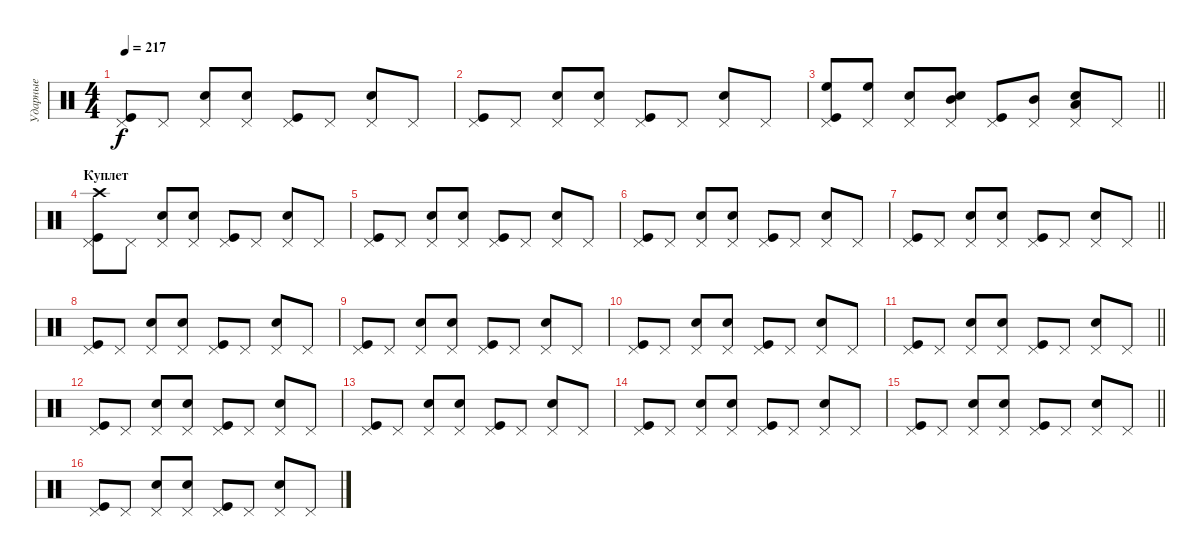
\track ("Ударные" "Ударные") {instrument percussion}
\staff {score}
\articulation defaults
\ts (4 4)
\tempo 217
\clef neutral
\ks c
("Pedal Hi-Hat (hit)" "Kick (hit)").8{dy f} "Pedal Hi-Hat (hit)".8 ("Pedal Hi-Hat (hit)" "Snare (hit) 2").8 ("Pedal Hi-Hat (hit)" "Snare (hit) 2").8 ("Pedal Hi-Hat (hit)" "Kick (hit)").8 "Pedal Hi-Hat (hit)".8 ("Pedal Hi-Hat (hit)" "Snare (hit) 2").8 "Pedal Hi-Hat (hit)".8 |
("Pedal Hi-Hat (hit)" "Kick (hit)").8 "Pedal Hi-Hat (hit)".8 ("Pedal Hi-Hat (hit)" "Snare (hit) 2").8 ("Pedal Hi-Hat (hit)" "Snare (hit) 2").8 ("Pedal Hi-Hat (hit)" "Kick (hit)").8 "Pedal Hi-Hat (hit)".8 ("Pedal Hi-Hat (hit)" "Snare (hit) 2").8 "Pedal Hi-Hat (hit)".8 |
\barLineRight lightlight
("Pedal Hi-Hat (hit)" "Kick (hit)" "High Floor Tom (hit)").8 ("Pedal Hi-Hat (hit)" "High Floor Tom (hit)").8 ("Pedal Hi-Hat (hit)" "Snare (hit) 2").8 ("Pedal Hi-Hat (hit)" "Snare (hit) 2" "Mid Tom (hit)").8 ("Pedal Hi-Hat (hit)" "Kick (hit)").8 ("Pedal Hi-Hat (hit)" "Mid Tom (hit)").8 ("Pedal Hi-Hat (hit)" "Snare (hit) 2" "Low Tom (hit)").8 "Pedal Hi-Hat (hit)".8 |
\section ("" "Куплет")
("Pedal Hi-Hat (hit)" "Kick (hit)" "Crash high (hit)").8 "Pedal Hi-Hat (hit)".8 ("Pedal Hi-Hat (hit)" "Snare (hit) 2").8 ("Pedal Hi-Hat (hit)" "Snare (hit) 2").8 ("Pedal Hi-Hat (hit)" "Kick (hit)").8 "Pedal Hi-Hat (hit)".8 ("Pedal Hi-Hat (hit)" "Snare (hit) 2").8 "Pedal Hi-Hat (hit)".8 |
("Pedal Hi-Hat (hit)" "Kick (hit)").8 "Pedal Hi-Hat (hit)".8 ("Pedal Hi-Hat (hit)" "Snare (hit) 2").8 ("Pedal Hi-Hat (hit)" "Snare (hit) 2").8 ("Pedal Hi-Hat (hit)" "Kick (hit)").8 "Pedal Hi-Hat (hit)".8 ("Pedal Hi-Hat (hit)" "Snare (hit) 2").8 "Pedal Hi-Hat (hit)".8 |
("Pedal Hi-Hat (hit)" "Kick (hit)").8 "Pedal Hi-Hat (hit)".8 ("Pedal Hi-Hat (hit)" "Snare (hit) 2").8 ("Pedal Hi-Hat (hit)" "Snare (hit) 2").8 ("Pedal Hi-Hat (hit)" "Kick (hit)").8 "Pedal Hi-Hat (hit)".8 ("Pedal Hi-Hat (hit)" "Snare (hit) 2").8 "Pedal Hi-Hat (hit)".8 |
\barLineRight lightlight
("Pedal Hi-Hat (hit)" "Kick (hit)").8 "Pedal Hi-Hat (hit)".8 ("Pedal Hi-Hat (hit)" "Snare (hit) 2").8 ("Pedal Hi-Hat (hit)" "Snare (hit) 2").8 ("Pedal Hi-Hat (hit)" "Kick (hit)").8 "Pedal Hi-Hat (hit)".8 ("Pedal Hi-Hat (hit)" "Snare (hit) 2").8 "Pedal Hi-Hat (hit)".8 |
("Pedal Hi-Hat (hit)" "Kick (hit)").8 "Pedal Hi-Hat (hit)".8 ("Pedal Hi-Hat (hit)" "Snare (hit) 2").8 ("Pedal Hi-Hat (hit)" "Snare (hit) 2").8 ("Pedal Hi-Hat (hit)" "Kick (hit)").8 "Pedal Hi-Hat (hit)".8 ("Pedal Hi-Hat (hit)" "Snare (hit) 2").8 "Pedal Hi-Hat (hit)".8 |
("Pedal Hi-Hat (hit)" "Kick (hit)").8 "Pedal Hi-Hat (hit)".8 ("Pedal Hi-Hat (hit)" "Snare (hit) 2").8 ("Pedal Hi-Hat (hit)" "Snare (hit) 2").8 ("Pedal Hi-Hat (hit)" "Kick (hit)").8 "Pedal Hi-Hat (hit)".8 ("Pedal Hi-Hat (hit)" "Snare (hit) 2").8 "Pedal Hi-Hat (hit)".8 |
("Pedal Hi-Hat (hit)" "Kick (hit)").8 "Pedal Hi-Hat (hit)".8 ("Pedal Hi-Hat (hit)" "Snare (hit) 2").8 ("Pedal Hi-Hat (hit)" "Snare (hit) 2").8 ("Pedal Hi-Hat (hit)" "Kick (hit)").8 "Pedal Hi-Hat (hit)".8 ("Pedal Hi-Hat (hit)" "Snare (hit) 2").8 "Pedal Hi-Hat (hit)".8 |
\barLineRight lightlight
("Pedal Hi-Hat (hit)" "Kick (hit)").8 "Pedal Hi-Hat (hit)".8 ("Pedal Hi-Hat (hit)" "Snare (hit) 2").8 ("Pedal Hi-Hat (hit)" "Snare (hit) 2").8 ("Pedal Hi-Hat (hit)" "Kick (hit)").8 "Pedal Hi-Hat (hit)".8 ("Pedal Hi-Hat (hit)" "Snare (hit) 2").8 "Pedal Hi-Hat (hit)".8 |
("Pedal Hi-Hat (hit)" "Kick (hit)").8 "Pedal Hi-Hat (hit)".8 ("Pedal Hi-Hat (hit)" "Snare (hit) 2").8 ("Pedal Hi-Hat (hit)" "Snare (hit) 2").8 ("Pedal Hi-Hat (hit)" "Kick (hit)").8 "Pedal Hi-Hat (hit)".8 ("Pedal Hi-Hat (hit)" "Snare (hit) 2").8 "Pedal Hi-Hat (hit)".8 |
("Pedal Hi-Hat (hit)" "Kick (hit)").8 "Pedal Hi-Hat (hit)".8 ("Pedal Hi-Hat (hit)" "Snare (hit) 2").8 ("Pedal Hi-Hat (hit)" "Snare (hit) 2").8 ("Pedal Hi-Hat (hit)" "Kick (hit)").8 "Pedal Hi-Hat (hit)".8 ("Pedal Hi-Hat (hit)" "Snare (hit) 2").8 "Pedal Hi-Hat (hit)".8 |
("Pedal Hi-Hat (hit)" "Kick (hit)").8 "Pedal Hi-Hat (hit)".8 ("Pedal Hi-Hat (hit)" "Snare (hit) 2").8 ("Pedal Hi-Hat (hit)" "Snare (hit) 2").8 ("Pedal Hi-Hat (hit)" "Kick (hit)").8 "Pedal Hi-Hat (hit)".8 ("Pedal Hi-Hat (hit)" "Snare (hit) 2").8 "Pedal Hi-Hat (hit)".8 |
\barLineRight lightlight
("Pedal Hi-Hat (hit)" "Kick (hit)").8 "Pedal Hi-Hat (hit)".8 ("Pedal Hi-Hat (hit)" "Snare (hit) 2").8 ("Pedal Hi-Hat (hit)" "Snare (hit) 2").8 ("Pedal Hi-Hat (hit)" "Kick (hit)").8 "Pedal Hi-Hat (hit)".8 ("Pedal Hi-Hat (hit)" "Snare (hit) 2").8 "Pedal Hi-Hat (hit)".8 |
("Pedal Hi-Hat (hit)" "Kick (hit)").8 "Pedal Hi-Hat (hit)".8 ("Pedal Hi-Hat (hit)" "Snare (hit) 2").8 ("Pedal Hi-Hat (hit)" "Snare (hit) 2").8 ("Pedal Hi-Hat (hit)" "Kick (hit)").8 "Pedal Hi-Hat (hit)".8 ("Pedal Hi-Hat (hit)" "Snare (hit) 2").8 "Pedal Hi-Hat (hit)".8
